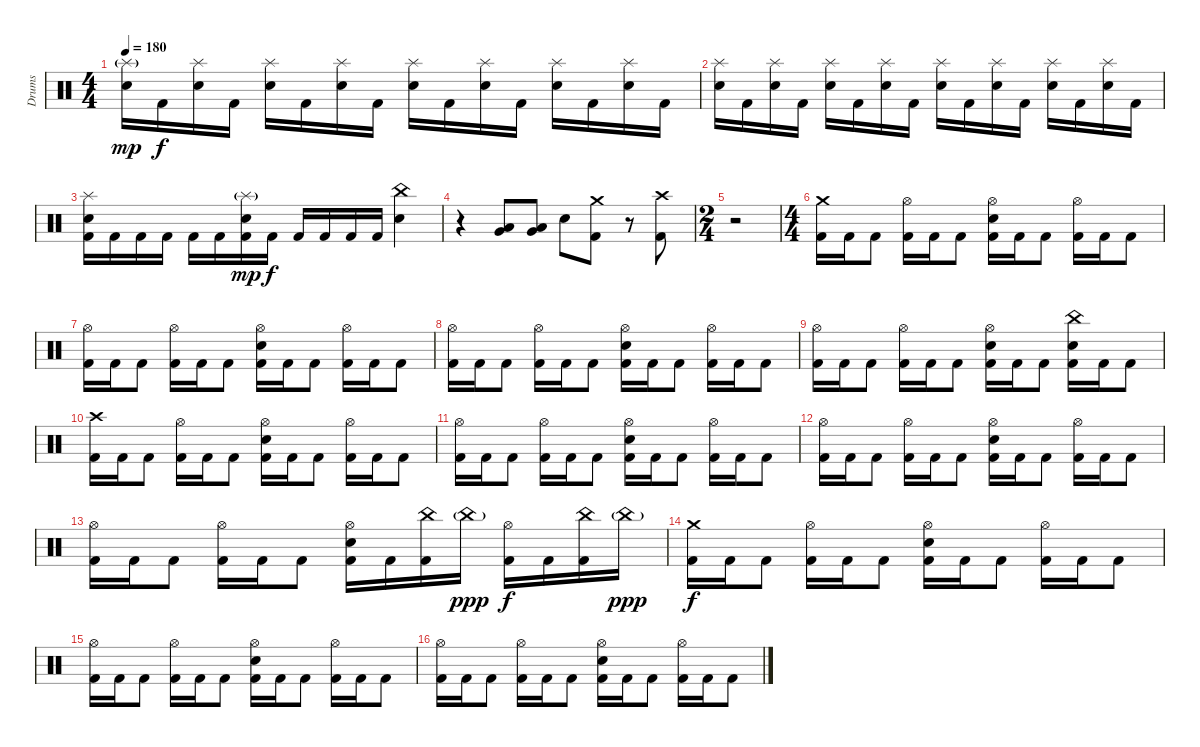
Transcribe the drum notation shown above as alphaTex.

\track ("Drums" "Drums") {instrument percussion}
\staff {score}
\articulation defaults
\ts (4 4)
\tempo 180
\clef neutral
\ks c
("Splash (hit)"{g} "Electric Snare (hit)").16{dy mp} "Kick (hit) 2".16{dy f} ("Splash (hit)" "Electric Snare (hit)").16 "Kick (hit) 2".16 ("Splash (hit)" "Electric Snare (hit)").16 "Kick (hit) 2".16 ("Splash (hit)" "Electric Snare (hit)").16 "Kick (hit) 2".16 ("Splash (hit)" "Electric Snare (hit)").16 "Kick (hit) 2".16 ("Splash (hit)" "Electric Snare (hit)").16 "Kick (hit) 2".16 ("Splash (hit)" "Electric Snare (hit)").16 "Kick (hit) 2".16 ("Splash (hit)" "Electric Snare (hit)").16 "Kick (hit) 2".16 |
("Splash (hit)" "Electric Snare (hit)").16 "Kick (hit) 2".16 ("Splash (hit)" "Electric Snare (hit)").16 "Kick (hit) 2".16 ("Splash (hit)" "Electric Snare (hit)").16 "Kick (hit) 2".16 ("Splash (hit)" "Electric Snare (hit)").16 "Kick (hit) 2".16 ("Splash (hit)" "Electric Snare (hit)").16 "Kick (hit) 2".16 ("Splash (hit)" "Electric Snare (hit)").16 "Kick (hit) 2".16 ("Splash (hit)" "Electric Snare (hit)").16 "Kick (hit) 2".16 ("Splash (hit)" "Electric Snare (hit)").16 "Kick (hit) 2".16 |
("Splash (hit)" "Electric Snare (hit)" "Kick (hit) 2").16 "Kick (hit) 2".16 "Kick (hit) 2".16 "Kick (hit) 2".16 "Kick (hit) 2".16 "Kick (hit) 2".16 ("Splash (hit)"{g} "Electric Snare (hit)" "Kick (hit) 2").16{dy mp} "Kick (hit) 2".16{dy f} "Kick (hit) 2".16 "Kick (hit) 2".16 "Kick (hit) 2".16 "Kick (hit) 2".16 ("China (hit)" "Electric Snare (hit)").4 |
r.4 ("Low Tom (hit)" "Very Low Tom (hit)").8 ("Low Tom (hit)" "Very Low Tom (hit)").8 "Electric Snare (hit)".8 ("Crash medium (hit)" "Kick (hit) 2").8 r.8 ("Crash high (hit)" "Kick (hit) 2").8 |
\ts (2 4)
r.2 |
\ts (4 4)
("Crash medium (hit)" "Kick (hit) 2").16 "Kick (hit) 2".16 "Kick (hit) 2".8 ("Hi-Hat (open)" "Kick (hit) 2").16 "Kick (hit) 2".16 "Kick (hit) 2".8 ("Hi-Hat (open)" "Electric Snare (hit)" "Kick (hit) 2").16 "Kick (hit) 2".16 "Kick (hit) 2".8 ("Hi-Hat (open)" "Kick (hit) 2").16 "Kick (hit) 2".16 "Kick (hit) 2".8 |
("Hi-Hat (open)" "Kick (hit) 2").16 "Kick (hit) 2".16 "Kick (hit) 2".8 ("Hi-Hat (open)" "Kick (hit) 2").16 "Kick (hit) 2".16 "Kick (hit) 2".8 ("Hi-Hat (open)" "Electric Snare (hit)" "Kick (hit) 2").16 "Kick (hit) 2".16 "Kick (hit) 2".8 ("Hi-Hat (open)" "Kick (hit) 2").16 "Kick (hit) 2".16 "Kick (hit) 2".8 |
("Hi-Hat (open)" "Kick (hit) 2").16 "Kick (hit) 2".16 "Kick (hit) 2".8 ("Hi-Hat (open)" "Kick (hit) 2").16 "Kick (hit) 2".16 "Kick (hit) 2".8 ("Hi-Hat (open)" "Electric Snare (hit)" "Kick (hit) 2").16 "Kick (hit) 2".16 "Kick (hit) 2".8 ("Hi-Hat (open)" "Kick (hit) 2").16 "Kick (hit) 2".16 "Kick (hit) 2".8 |
("Hi-Hat (open)" "Kick (hit) 2").16 "Kick (hit) 2".16 "Kick (hit) 2".8 ("Hi-Hat (open)" "Kick (hit) 2").16 "Kick (hit) 2".16 "Kick (hit) 2".8 ("Hi-Hat (open)" "Electric Snare (hit)" "Kick (hit) 2").16 "Kick (hit) 2".16 "Kick (hit) 2".8 ("China (hit)" "Electric Snare (hit)" "Kick (hit) 2").16 "Kick (hit) 2".16 "Kick (hit) 2".8 |
("Crash high (hit)" "Kick (hit) 2").16 "Kick (hit) 2".16 "Kick (hit) 2".8 ("Hi-Hat (open)" "Kick (hit) 2").16 "Kick (hit) 2".16 "Kick (hit) 2".8 ("Hi-Hat (open)" "Electric Snare (hit)" "Kick (hit) 2").16 "Kick (hit) 2".16 "Kick (hit) 2".8 ("Hi-Hat (open)" "Kick (hit) 2").16 "Kick (hit) 2".16 "Kick (hit) 2".8 |
("Hi-Hat (open)" "Kick (hit) 2").16 "Kick (hit) 2".16 "Kick (hit) 2".8 ("Hi-Hat (open)" "Kick (hit) 2").16 "Kick (hit) 2".16 "Kick (hit) 2".8 ("Hi-Hat (open)" "Electric Snare (hit)" "Kick (hit) 2").16 "Kick (hit) 2".16 "Kick (hit) 2".8 ("Hi-Hat (open)" "Kick (hit) 2").16 "Kick (hit) 2".16 "Kick (hit) 2".8 |
("Hi-Hat (open)" "Kick (hit) 2").16 "Kick (hit) 2".16 "Kick (hit) 2".8 ("Hi-Hat (open)" "Kick (hit) 2").16 "Kick (hit) 2".16 "Kick (hit) 2".8 ("Hi-Hat (open)" "Electric Snare (hit)" "Kick (hit) 2").16 "Kick (hit) 2".16 "Kick (hit) 2".8 ("Hi-Hat (open)" "Kick (hit) 2").16 "Kick (hit) 2".16 "Kick (hit) 2".8 |
("Hi-Hat (open)" "Kick (hit) 2").16 "Kick (hit) 2".16 "Kick (hit) 2".8 ("Hi-Hat (open)" "Kick (hit) 2").16 "Kick (hit) 2".16 "Kick (hit) 2".8 ("Hi-Hat (open)" "Electric Snare (hit)" "Kick (hit) 2").16 "Kick (hit) 2".16 ("China (hit)" "Kick (hit) 2").16 "China (hit)"{g}.16{dy ppp} ("Hi-Hat (open)" "Kick (hit) 2").16{dy f} "Kick (hit) 2".16 ("China (hit)" "Kick (hit) 2").16 "China (hit)"{g}.16{dy ppp} |
("Crash medium (hit)" "Kick (hit) 2").16{dy f} "Kick (hit) 2".16 "Kick (hit) 2".8 ("Hi-Hat (open)" "Kick (hit) 2").16 "Kick (hit) 2".16 "Kick (hit) 2".8 ("Hi-Hat (open)" "Electric Snare (hit)" "Kick (hit) 2").16 "Kick (hit) 2".16 "Kick (hit) 2".8 ("Hi-Hat (open)" "Kick (hit) 2").16 "Kick (hit) 2".16 "Kick (hit) 2".8 |
("Hi-Hat (open)" "Kick (hit) 2").16 "Kick (hit) 2".16 "Kick (hit) 2".8 ("Hi-Hat (open)" "Kick (hit) 2").16 "Kick (hit) 2".16 "Kick (hit) 2".8 ("Hi-Hat (open)" "Electric Snare (hit)" "Kick (hit) 2").16 "Kick (hit) 2".16 "Kick (hit) 2".8 ("Hi-Hat (open)" "Kick (hit) 2").16 "Kick (hit) 2".16 "Kick (hit) 2".8 |
("Hi-Hat (open)" "Kick (hit) 2").16 "Kick (hit) 2".16 "Kick (hit) 2".8 ("Hi-Hat (open)" "Kick (hit) 2").16 "Kick (hit) 2".16 "Kick (hit) 2".8 ("Hi-Hat (open)" "Electric Snare (hit)" "Kick (hit) 2").16 "Kick (hit) 2".16 "Kick (hit) 2".8 ("Hi-Hat (open)" "Kick (hit) 2").16 "Kick (hit) 2".16 "Kick (hit) 2".8
